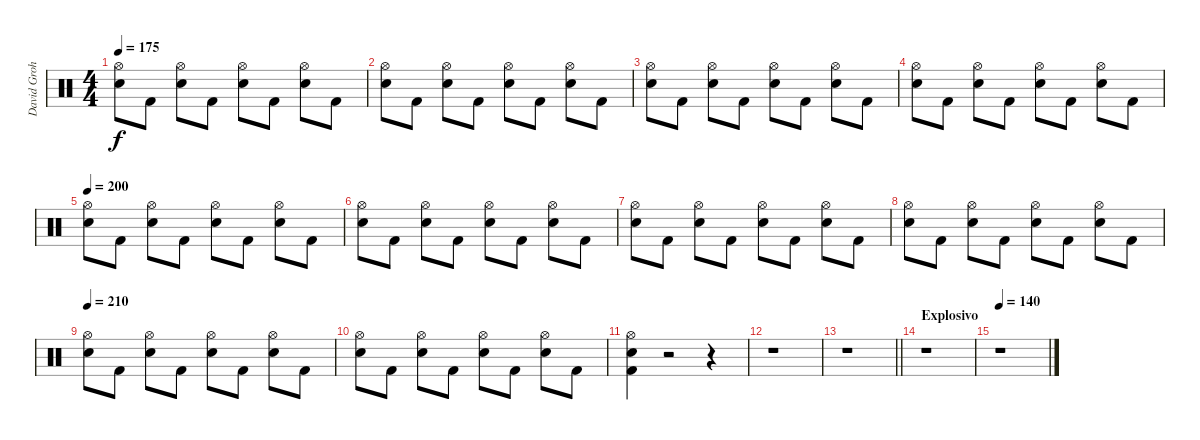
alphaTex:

\track ("David Grohl/Alfredo Ortiz" "David Groh") {instrument percussion}
\staff {score}
\articulation defaults
\ts (4 4)
\tempo 175
\clef neutral
\ks c
("Hi-Hat (open)" "Snare (hit) 2").8{dy f} "Kick (hit) 2".8 ("Hi-Hat (open)" "Snare (hit) 2").8 "Kick (hit) 2".8 ("Hi-Hat (open)" "Snare (hit) 2").8 "Kick (hit) 2".8 ("Hi-Hat (open)" "Snare (hit) 2").8 "Kick (hit) 2".8 |
("Hi-Hat (open)" "Snare (hit) 2").8 "Kick (hit) 2".8 ("Hi-Hat (open)" "Snare (hit) 2").8 "Kick (hit) 2".8 ("Hi-Hat (open)" "Snare (hit) 2").8 "Kick (hit) 2".8 ("Hi-Hat (open)" "Snare (hit) 2").8 "Kick (hit) 2".8 |
("Hi-Hat (open)" "Snare (hit) 2").8 "Kick (hit) 2".8 ("Hi-Hat (open)" "Snare (hit) 2").8 "Kick (hit) 2".8 ("Hi-Hat (open)" "Snare (hit) 2").8 "Kick (hit) 2".8 ("Hi-Hat (open)" "Snare (hit) 2").8 "Kick (hit) 2".8 |
("Hi-Hat (open)" "Snare (hit) 2").8 "Kick (hit) 2".8 ("Hi-Hat (open)" "Snare (hit) 2").8 "Kick (hit) 2".8 ("Hi-Hat (open)" "Snare (hit) 2").8 "Kick (hit) 2".8 ("Hi-Hat (open)" "Snare (hit) 2").8 "Kick (hit) 2".8 |
\tempo 200
("Hi-Hat (open)" "Snare (hit) 2").8 "Kick (hit) 2".8 ("Hi-Hat (open)" "Snare (hit) 2").8 "Kick (hit) 2".8 ("Hi-Hat (open)" "Snare (hit) 2").8 "Kick (hit) 2".8 ("Hi-Hat (open)" "Snare (hit) 2").8 "Kick (hit) 2".8 |
("Hi-Hat (open)" "Snare (hit) 2").8 "Kick (hit) 2".8 ("Hi-Hat (open)" "Snare (hit) 2").8 "Kick (hit) 2".8 ("Hi-Hat (open)" "Snare (hit) 2").8 "Kick (hit) 2".8 ("Hi-Hat (open)" "Snare (hit) 2").8 "Kick (hit) 2".8 |
("Hi-Hat (open)" "Snare (hit) 2").8{volume 16} "Kick (hit) 2".8 ("Hi-Hat (open)" "Snare (hit) 2").8 "Kick (hit) 2".8 ("Hi-Hat (open)" "Snare (hit) 2").8 "Kick (hit) 2".8 ("Hi-Hat (open)" "Snare (hit) 2").8 "Kick (hit) 2".8 |
("Hi-Hat (open)" "Snare (hit) 2").8 "Kick (hit) 2".8 ("Hi-Hat (open)" "Snare (hit) 2").8 "Kick (hit) 2".8 ("Hi-Hat (open)" "Snare (hit) 2").8 "Kick (hit) 2".8 ("Hi-Hat (open)" "Snare (hit) 2").8 "Kick (hit) 2".8 |
\tempo 210
("Hi-Hat (open)" "Snare (hit) 2").8 "Kick (hit) 2".8 ("Hi-Hat (open)" "Snare (hit) 2").8 "Kick (hit) 2".8 ("Hi-Hat (open)" "Snare (hit) 2").8 "Kick (hit) 2".8 ("Hi-Hat (open)" "Snare (hit) 2").8 "Kick (hit) 2".8 |
("Hi-Hat (open)" "Snare (hit) 2").8 "Kick (hit) 2".8 ("Hi-Hat (open)" "Snare (hit) 2").8 "Kick (hit) 2".8 ("Hi-Hat (open)" "Snare (hit) 2").8 "Kick (hit) 2".8 ("Hi-Hat (open)" "Snare (hit) 2").8 "Kick (hit) 2".8 |
("Hi-Hat (open)" "Snare (hit) 2" "Kick (hit) 2").4 r.2 r.4 |
r.1 |
\barLineRight lightlight
r.1 |
\section ("" "Explosivo")
r.1 |
\tempo 140
r.1
